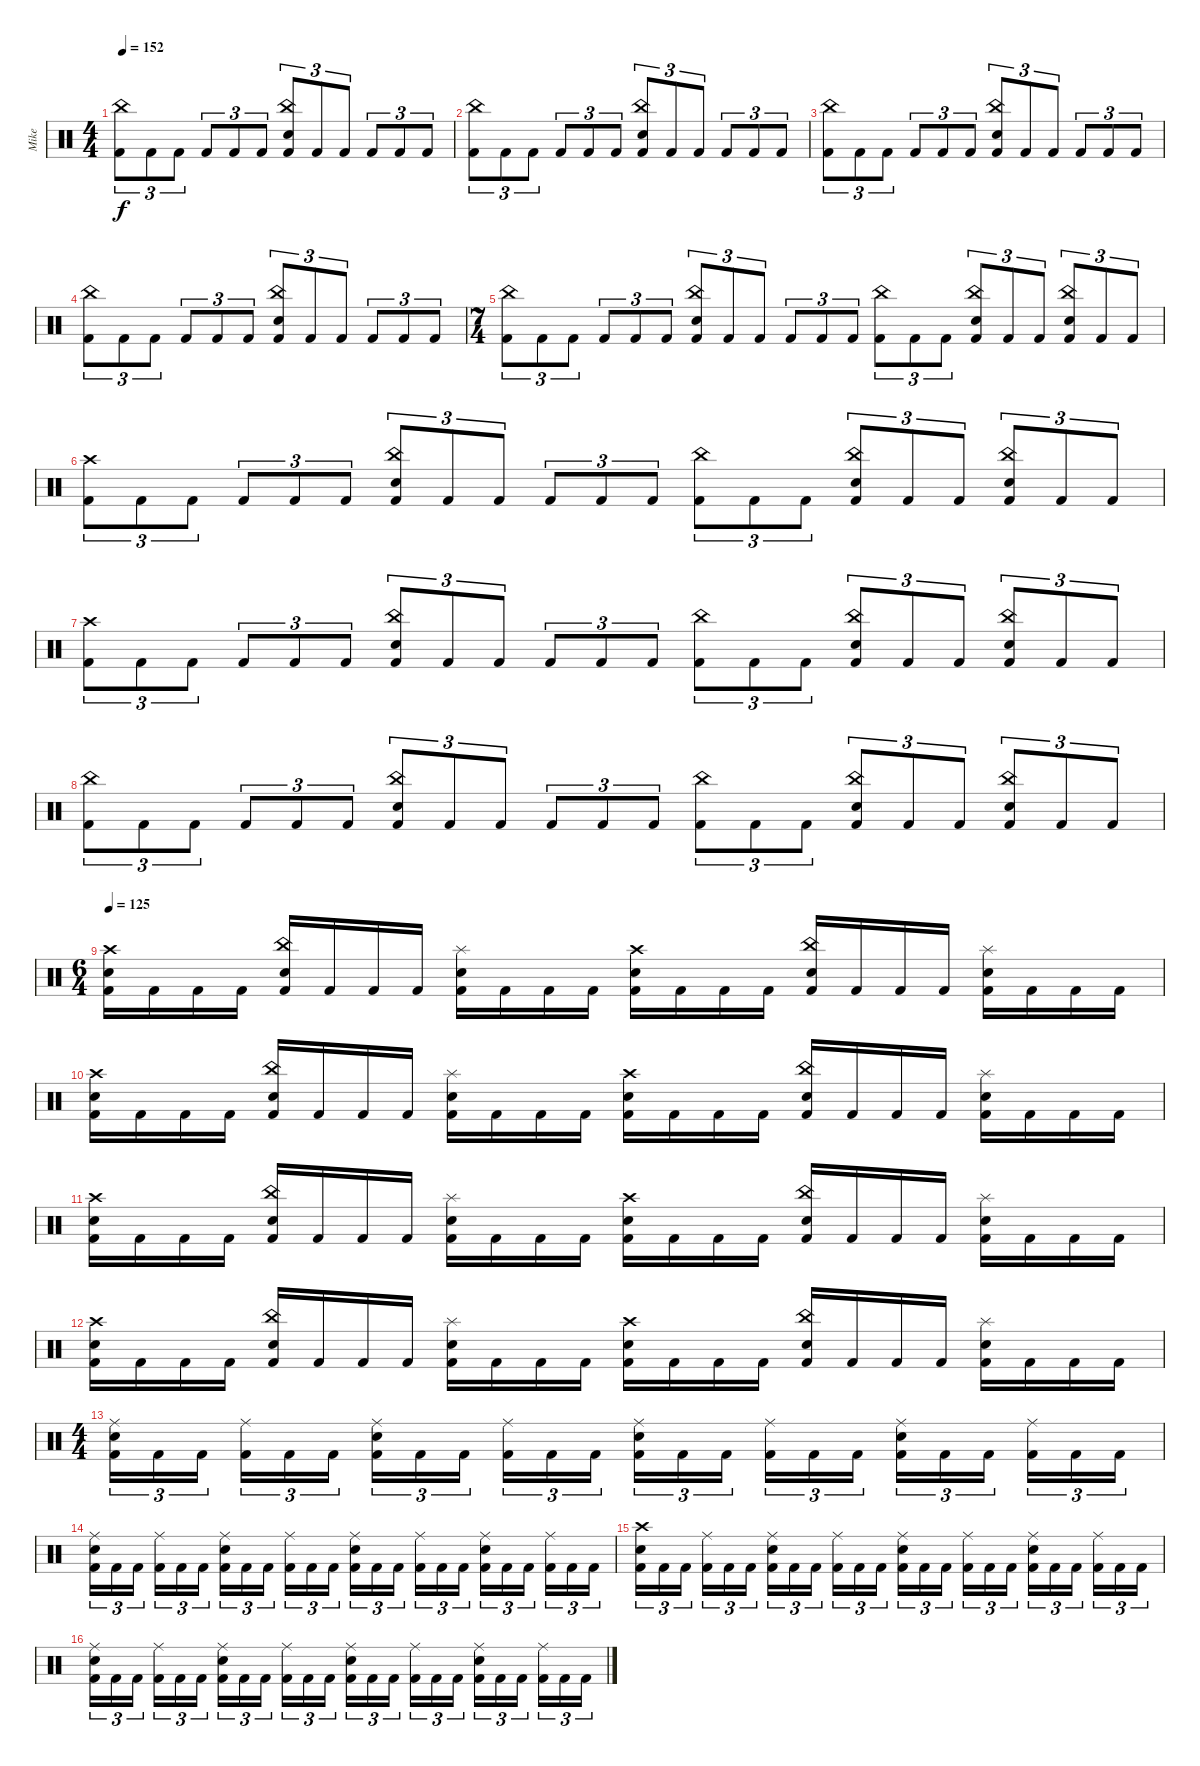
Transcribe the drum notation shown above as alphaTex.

\track ("Mike" "Mike") {instrument percussion}
\staff {score}
\articulation defaults
\ts (4 4)
\tempo 152
\clef neutral
\ks c
("Kick (hit) 2" "China (hit)").8{tu (3 2) dy f} "Kick (hit) 2".8{tu (3 2)} "Kick (hit) 2".8{tu (3 2)} "Kick (hit) 2".8{tu (3 2)} "Kick (hit) 2".8{tu (3 2)} "Kick (hit) 2".8{tu (3 2)} ("Kick (hit) 2" "Electric Snare (hit)" "China (hit)").8{tu (3 2)} "Kick (hit) 2".8{tu (3 2)} "Kick (hit) 2".8{tu (3 2)} "Kick (hit) 2".8{tu (3 2)} "Kick (hit) 2".8{tu (3 2)} "Kick (hit) 2".8{tu (3 2)} |
("Kick (hit) 2" "China (hit)").8{tu (3 2)} "Kick (hit) 2".8{tu (3 2)} "Kick (hit) 2".8{tu (3 2)} "Kick (hit) 2".8{tu (3 2)} "Kick (hit) 2".8{tu (3 2)} "Kick (hit) 2".8{tu (3 2)} ("Kick (hit) 2" "Electric Snare (hit)" "China (hit)").8{tu (3 2)} "Kick (hit) 2".8{tu (3 2)} "Kick (hit) 2".8{tu (3 2)} "Kick (hit) 2".8{tu (3 2)} "Kick (hit) 2".8{tu (3 2)} "Kick (hit) 2".8{tu (3 2)} |
("Kick (hit) 2" "China (hit)").8{tu (3 2)} "Kick (hit) 2".8{tu (3 2)} "Kick (hit) 2".8{tu (3 2)} "Kick (hit) 2".8{tu (3 2)} "Kick (hit) 2".8{tu (3 2)} "Kick (hit) 2".8{tu (3 2)} ("Kick (hit) 2" "Electric Snare (hit)" "China (hit)").8{tu (3 2)} "Kick (hit) 2".8{tu (3 2)} "Kick (hit) 2".8{tu (3 2)} "Kick (hit) 2".8{tu (3 2)} "Kick (hit) 2".8{tu (3 2)} "Kick (hit) 2".8{tu (3 2)} |
("Kick (hit) 2" "China (hit)").8{tu (3 2)} "Kick (hit) 2".8{tu (3 2)} "Kick (hit) 2".8{tu (3 2)} "Kick (hit) 2".8{tu (3 2)} "Kick (hit) 2".8{tu (3 2)} "Kick (hit) 2".8{tu (3 2)} ("Kick (hit) 2" "Electric Snare (hit)" "China (hit)").8{tu (3 2)} "Kick (hit) 2".8{tu (3 2)} "Kick (hit) 2".8{tu (3 2)} "Kick (hit) 2".8{tu (3 2)} "Kick (hit) 2".8{tu (3 2)} "Kick (hit) 2".8{tu (3 2)} |
\ts (7 4)
("Kick (hit) 2" "China (hit)").8{tu (3 2)} "Kick (hit) 2".8{tu (3 2)} "Kick (hit) 2".8{tu (3 2)} "Kick (hit) 2".8{tu (3 2)} "Kick (hit) 2".8{tu (3 2)} "Kick (hit) 2".8{tu (3 2)} ("Kick (hit) 2" "Electric Snare (hit)" "China (hit)").8{tu (3 2)} "Kick (hit) 2".8{tu (3 2)} "Kick (hit) 2".8{tu (3 2)} "Kick (hit) 2".8{tu (3 2)} "Kick (hit) 2".8{tu (3 2)} "Kick (hit) 2".8{tu (3 2)} ("Kick (hit) 2" "China (hit)").8{tu (3 2)} "Kick (hit) 2".8{tu (3 2)} "Kick (hit) 2".8{tu (3 2)} ("Kick (hit) 2" "Electric Snare (hit)" "China (hit)").8{tu (3 2)} "Kick (hit) 2".8{tu (3 2)} "Kick (hit) 2".8{tu (3 2)} ("Kick (hit) 2" "Electric Snare (hit)" "China (hit)").8{tu (3 2)} "Kick (hit) 2".8{tu (3 2)} "Kick (hit) 2".8{tu (3 2)} |
("Kick (hit) 2" "Crash high (hit)").8{tu (3 2)} "Kick (hit) 2".8{tu (3 2)} "Kick (hit) 2".8{tu (3 2)} "Kick (hit) 2".8{tu (3 2)} "Kick (hit) 2".8{tu (3 2)} "Kick (hit) 2".8{tu (3 2)} ("Kick (hit) 2" "Electric Snare (hit)" "China (hit)").8{tu (3 2)} "Kick (hit) 2".8{tu (3 2)} "Kick (hit) 2".8{tu (3 2)} "Kick (hit) 2".8{tu (3 2)} "Kick (hit) 2".8{tu (3 2)} "Kick (hit) 2".8{tu (3 2)} ("Kick (hit) 2" "China (hit)").8{tu (3 2)} "Kick (hit) 2".8{tu (3 2)} "Kick (hit) 2".8{tu (3 2)} ("Kick (hit) 2" "Electric Snare (hit)" "China (hit)").8{tu (3 2)} "Kick (hit) 2".8{tu (3 2)} "Kick (hit) 2".8{tu (3 2)} ("Kick (hit) 2" "Electric Snare (hit)" "China (hit)").8{tu (3 2)} "Kick (hit) 2".8{tu (3 2)} "Kick (hit) 2".8{tu (3 2)} |
("Kick (hit) 2" "Crash high (hit)").8{tu (3 2)} "Kick (hit) 2".8{tu (3 2)} "Kick (hit) 2".8{tu (3 2)} "Kick (hit) 2".8{tu (3 2)} "Kick (hit) 2".8{tu (3 2)} "Kick (hit) 2".8{tu (3 2)} ("Kick (hit) 2" "Electric Snare (hit)" "China (hit)").8{tu (3 2)} "Kick (hit) 2".8{tu (3 2)} "Kick (hit) 2".8{tu (3 2)} "Kick (hit) 2".8{tu (3 2)} "Kick (hit) 2".8{tu (3 2)} "Kick (hit) 2".8{tu (3 2)} ("Kick (hit) 2" "China (hit)").8{tu (3 2)} "Kick (hit) 2".8{tu (3 2)} "Kick (hit) 2".8{tu (3 2)} ("Kick (hit) 2" "Electric Snare (hit)" "China (hit)").8{tu (3 2)} "Kick (hit) 2".8{tu (3 2)} "Kick (hit) 2".8{tu (3 2)} ("Kick (hit) 2" "Electric Snare (hit)" "China (hit)").8{tu (3 2)} "Kick (hit) 2".8{tu (3 2)} "Kick (hit) 2".8{tu (3 2)} |
("Kick (hit) 2" "China (hit)").8{tu (3 2)} "Kick (hit) 2".8{tu (3 2)} "Kick (hit) 2".8{tu (3 2)} "Kick (hit) 2".8{tu (3 2)} "Kick (hit) 2".8{tu (3 2)} "Kick (hit) 2".8{tu (3 2)} ("Kick (hit) 2" "Electric Snare (hit)" "China (hit)").8{tu (3 2)} "Kick (hit) 2".8{tu (3 2)} "Kick (hit) 2".8{tu (3 2)} "Kick (hit) 2".8{tu (3 2)} "Kick (hit) 2".8{tu (3 2)} "Kick (hit) 2".8{tu (3 2)} ("Kick (hit) 2" "China (hit)").8{tu (3 2)} "Kick (hit) 2".8{tu (3 2)} "Kick (hit) 2".8{tu (3 2)} ("Kick (hit) 2" "Electric Snare (hit)" "China (hit)").8{tu (3 2)} "Kick (hit) 2".8{tu (3 2)} "Kick (hit) 2".8{tu (3 2)} ("Kick (hit) 2" "Electric Snare (hit)" "China (hit)").8{tu (3 2)} "Kick (hit) 2".8{tu (3 2)} "Kick (hit) 2".8{tu (3 2)} |
\ts (6 4)
\tempo 125
("Kick (hit) 2" "Electric Snare (hit)" "Crash high (hit)").16 "Kick (hit) 2".16 "Kick (hit) 2".16 "Kick (hit) 2".16 ("Kick (hit) 2" "Electric Snare (hit)" "China (hit)").16 "Kick (hit) 2".16 "Kick (hit) 2".16 "Kick (hit) 2".16 ("Kick (hit) 2" "Electric Snare (hit)" "Splash (hit)").16 "Kick (hit) 2".16 "Kick (hit) 2".16 "Kick (hit) 2".16 ("Kick (hit) 2" "Electric Snare (hit)" "Crash high (hit)").16 "Kick (hit) 2".16 "Kick (hit) 2".16 "Kick (hit) 2".16 ("Kick (hit) 2" "Electric Snare (hit)" "China (hit)").16 "Kick (hit) 2".16 "Kick (hit) 2".16 "Kick (hit) 2".16 ("Kick (hit) 2" "Electric Snare (hit)" "Splash (hit)").16 "Kick (hit) 2".16 "Kick (hit) 2".16 "Kick (hit) 2".16 |
("Kick (hit) 2" "Electric Snare (hit)" "Crash high (hit)").16 "Kick (hit) 2".16 "Kick (hit) 2".16 "Kick (hit) 2".16 ("Kick (hit) 2" "Electric Snare (hit)" "China (hit)").16 "Kick (hit) 2".16 "Kick (hit) 2".16 "Kick (hit) 2".16 ("Kick (hit) 2" "Electric Snare (hit)" "Splash (hit)").16 "Kick (hit) 2".16 "Kick (hit) 2".16 "Kick (hit) 2".16 ("Kick (hit) 2" "Electric Snare (hit)" "Crash high (hit)").16 "Kick (hit) 2".16 "Kick (hit) 2".16 "Kick (hit) 2".16 ("Kick (hit) 2" "Electric Snare (hit)" "China (hit)").16 "Kick (hit) 2".16 "Kick (hit) 2".16 "Kick (hit) 2".16 ("Kick (hit) 2" "Electric Snare (hit)" "Splash (hit)").16 "Kick (hit) 2".16 "Kick (hit) 2".16 "Kick (hit) 2".16 |
("Kick (hit) 2" "Electric Snare (hit)" "Crash high (hit)").16 "Kick (hit) 2".16 "Kick (hit) 2".16 "Kick (hit) 2".16 ("Kick (hit) 2" "Electric Snare (hit)" "China (hit)").16 "Kick (hit) 2".16 "Kick (hit) 2".16 "Kick (hit) 2".16 ("Kick (hit) 2" "Electric Snare (hit)" "Splash (hit)").16 "Kick (hit) 2".16 "Kick (hit) 2".16 "Kick (hit) 2".16 ("Kick (hit) 2" "Electric Snare (hit)" "Crash high (hit)").16 "Kick (hit) 2".16 "Kick (hit) 2".16 "Kick (hit) 2".16 ("Kick (hit) 2" "Electric Snare (hit)" "China (hit)").16 "Kick (hit) 2".16 "Kick (hit) 2".16 "Kick (hit) 2".16 ("Kick (hit) 2" "Electric Snare (hit)" "Splash (hit)").16 "Kick (hit) 2".16 "Kick (hit) 2".16 "Kick (hit) 2".16 |
("Kick (hit) 2" "Electric Snare (hit)" "Crash high (hit)").16 "Kick (hit) 2".16 "Kick (hit) 2".16 "Kick (hit) 2".16 ("Kick (hit) 2" "Electric Snare (hit)" "China (hit)").16 "Kick (hit) 2".16 "Kick (hit) 2".16 "Kick (hit) 2".16 ("Kick (hit) 2" "Electric Snare (hit)" "Splash (hit)").16 "Kick (hit) 2".16 "Kick (hit) 2".16 "Kick (hit) 2".16 ("Kick (hit) 2" "Electric Snare (hit)" "Crash high (hit)").16 "Kick (hit) 2".16 "Kick (hit) 2".16 "Kick (hit) 2".16 ("Kick (hit) 2" "Electric Snare (hit)" "China (hit)").16 "Kick (hit) 2".16 "Kick (hit) 2".16 "Kick (hit) 2".16 ("Kick (hit) 2" "Electric Snare (hit)" "Splash (hit)").16 "Kick (hit) 2".16 "Kick (hit) 2".16 "Kick (hit) 2".16 |
\ts (4 4)
("Kick (hit) 2" "Electric Snare (hit)" "Ride (middle)").16{tu (3 2)} "Kick (hit) 2".16{tu (3 2)} "Kick (hit) 2".16{tu (3 2) beam splitsecondary} ("Kick (hit) 2" "Ride (middle)").16{tu (3 2)} "Kick (hit) 2".16{tu (3 2)} "Kick (hit) 2".16{tu (3 2)} ("Kick (hit) 2" "Electric Snare (hit)" "Ride (middle)").16{tu (3 2)} "Kick (hit) 2".16{tu (3 2)} "Kick (hit) 2".16{tu (3 2) beam splitsecondary} ("Kick (hit) 2" "Ride (middle)").16{tu (3 2)} "Kick (hit) 2".16{tu (3 2)} "Kick (hit) 2".16{tu (3 2)} ("Kick (hit) 2" "Electric Snare (hit)" "Ride (middle)").16{tu (3 2)} "Kick (hit) 2".16{tu (3 2)} "Kick (hit) 2".16{tu (3 2) beam splitsecondary} ("Kick (hit) 2" "Ride (middle)").16{tu (3 2)} "Kick (hit) 2".16{tu (3 2)} "Kick (hit) 2".16{tu (3 2)} ("Kick (hit) 2" "Electric Snare (hit)" "Ride (middle)").16{tu (3 2)} "Kick (hit) 2".16{tu (3 2)} "Kick (hit) 2".16{tu (3 2) beam splitsecondary} ("Kick (hit) 2" "Ride (middle)").16{tu (3 2)} "Kick (hit) 2".16{tu (3 2)} "Kick (hit) 2".16{tu (3 2)} |
("Kick (hit) 2" "Electric Snare (hit)" "Ride (middle)").16{tu (3 2)} "Kick (hit) 2".16{tu (3 2)} "Kick (hit) 2".16{tu (3 2) beam splitsecondary} ("Kick (hit) 2" "Ride (middle)").16{tu (3 2)} "Kick (hit) 2".16{tu (3 2)} "Kick (hit) 2".16{tu (3 2)} ("Kick (hit) 2" "Electric Snare (hit)" "Ride (middle)").16{tu (3 2)} "Kick (hit) 2".16{tu (3 2)} "Kick (hit) 2".16{tu (3 2) beam splitsecondary} ("Kick (hit) 2" "Ride (middle)").16{tu (3 2)} "Kick (hit) 2".16{tu (3 2)} "Kick (hit) 2".16{tu (3 2)} ("Kick (hit) 2" "Electric Snare (hit)" "Ride (middle)").16{tu (3 2)} "Kick (hit) 2".16{tu (3 2)} "Kick (hit) 2".16{tu (3 2) beam splitsecondary} ("Kick (hit) 2" "Ride (middle)").16{tu (3 2)} "Kick (hit) 2".16{tu (3 2)} "Kick (hit) 2".16{tu (3 2)} ("Kick (hit) 2" "Electric Snare (hit)" "Ride (middle)").16{tu (3 2)} "Kick (hit) 2".16{tu (3 2)} "Kick (hit) 2".16{tu (3 2) beam splitsecondary} ("Kick (hit) 2" "Ride (middle)").16{tu (3 2)} "Kick (hit) 2".16{tu (3 2)} "Kick (hit) 2".16{tu (3 2)} |
("Kick (hit) 2" "Electric Snare (hit)" "Crash high (hit)").16{tu (3 2)} "Kick (hit) 2".16{tu (3 2)} "Kick (hit) 2".16{tu (3 2) beam splitsecondary} ("Kick (hit) 2" "Ride (middle)").16{tu (3 2)} "Kick (hit) 2".16{tu (3 2)} "Kick (hit) 2".16{tu (3 2)} ("Kick (hit) 2" "Electric Snare (hit)" "Ride (middle)").16{tu (3 2)} "Kick (hit) 2".16{tu (3 2)} "Kick (hit) 2".16{tu (3 2) beam splitsecondary} ("Kick (hit) 2" "Ride (middle)").16{tu (3 2)} "Kick (hit) 2".16{tu (3 2)} "Kick (hit) 2".16{tu (3 2)} ("Kick (hit) 2" "Electric Snare (hit)" "Ride (middle)").16{tu (3 2)} "Kick (hit) 2".16{tu (3 2)} "Kick (hit) 2".16{tu (3 2) beam splitsecondary} ("Kick (hit) 2" "Ride (middle)").16{tu (3 2)} "Kick (hit) 2".16{tu (3 2)} "Kick (hit) 2".16{tu (3 2)} ("Kick (hit) 2" "Electric Snare (hit)" "Ride (middle)").16{tu (3 2)} "Kick (hit) 2".16{tu (3 2)} "Kick (hit) 2".16{tu (3 2) beam splitsecondary} ("Kick (hit) 2" "Ride (middle)").16{tu (3 2)} "Kick (hit) 2".16{tu (3 2)} "Kick (hit) 2".16{tu (3 2)} |
("Kick (hit) 2" "Electric Snare (hit)" "Ride (middle)").16{tu (3 2)} "Kick (hit) 2".16{tu (3 2)} "Kick (hit) 2".16{tu (3 2) beam splitsecondary} ("Kick (hit) 2" "Ride (middle)").16{tu (3 2)} "Kick (hit) 2".16{tu (3 2)} "Kick (hit) 2".16{tu (3 2)} ("Kick (hit) 2" "Electric Snare (hit)" "Ride (middle)").16{tu (3 2)} "Kick (hit) 2".16{tu (3 2)} "Kick (hit) 2".16{tu (3 2) beam splitsecondary} ("Kick (hit) 2" "Ride (middle)").16{tu (3 2)} "Kick (hit) 2".16{tu (3 2)} "Kick (hit) 2".16{tu (3 2)} ("Kick (hit) 2" "Electric Snare (hit)" "Ride (middle)").16{tu (3 2)} "Kick (hit) 2".16{tu (3 2)} "Kick (hit) 2".16{tu (3 2) beam splitsecondary} ("Kick (hit) 2" "Ride (middle)").16{tu (3 2)} "Kick (hit) 2".16{tu (3 2)} "Kick (hit) 2".16{tu (3 2)} ("Kick (hit) 2" "Electric Snare (hit)" "Ride (middle)").16{tu (3 2)} "Kick (hit) 2".16{tu (3 2)} "Kick (hit) 2".16{tu (3 2) beam splitsecondary} ("Kick (hit) 2" "Ride (middle)").16{tu (3 2)} "Kick (hit) 2".16{tu (3 2)} "Kick (hit) 2".16{tu (3 2)}
